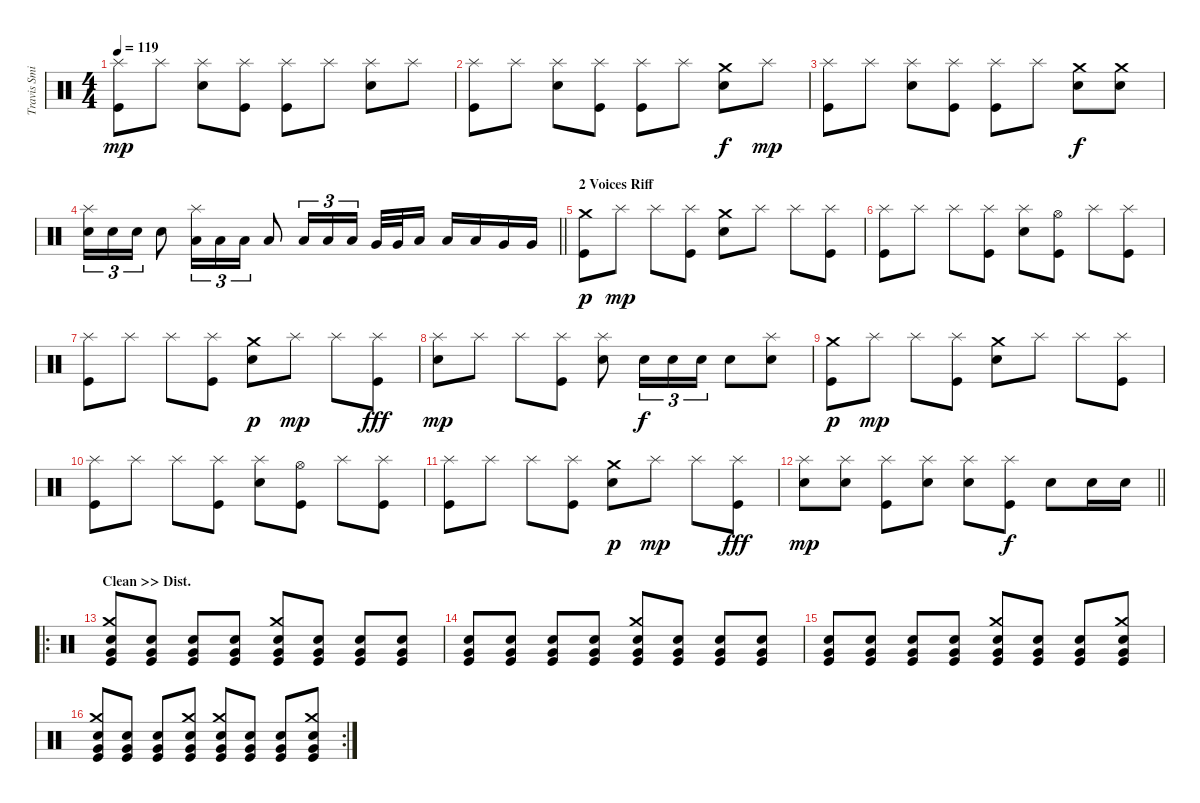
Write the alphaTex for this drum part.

\track ("Travis Smith (Drums)" "Travis Smi") {instrument percussion}
\staff {score}
\articulation defaults
\ts (4 4)
\tempo 119
\clef neutral
\ks c
("Splash (hit)" "Kick (hit)").8{dy mp} "Splash (hit)".8 ("Splash (hit)" "Electric Snare (hit)").8 ("Splash (hit)" "Kick (hit)").8 ("Splash (hit)" "Kick (hit)").8 "Splash (hit)".8 ("Splash (hit)" "Electric Snare (hit)").8 "Splash (hit)".8 |
("Splash (hit)" "Kick (hit)").8 "Splash (hit)".8 ("Splash (hit)" "Electric Snare (hit)").8 ("Splash (hit)" "Kick (hit)").8 ("Splash (hit)" "Kick (hit)").8 "Splash (hit)".8 ("Crash medium (hit)" "Electric Snare (hit)").8{dy f} "Splash (hit)".8{dy mp} |
("Splash (hit)" "Kick (hit)").8 "Splash (hit)".8 ("Splash (hit)" "Electric Snare (hit)").8 ("Splash (hit)" "Kick (hit)").8 ("Splash (hit)" "Kick (hit)").8 "Splash (hit)".8 ("Crash medium (hit)" "Electric Snare (hit)").8{dy f} ("Crash medium (hit)" "Electric Snare (hit)").8 |
\barLineRight lightlight
("Splash (hit)" "Electric Snare (hit)").16{tu (3 2)} "Electric Snare (hit)".16{tu (3 2)} "Electric Snare (hit)".16{tu (3 2)} "Electric Snare (hit)".8 ("Splash (hit)" "Low Tom (hit)").16{tu (3 2)} "Low Tom (hit)".16{tu (3 2)} "Low Tom (hit)".16{tu (3 2)} "Low Tom (hit)".8 "Low Tom (hit)".16{tu (3 2)} "Low Tom (hit)".16{tu (3 2)} "Low Tom (hit)".16{tu (3 2) beam splitsecondary} "Very Low Tom (hit)".32 "Very Low Tom (hit)".32 "Low Floor Tom (hit)".16 "Low Floor Tom (hit)".16 "Low Floor Tom (hit)".16 "Very Low Tom (hit)".16 "Very Low Tom (hit)".16 |
\section ("" "2 Voices Riff")
("Crash medium (hit)" "Kick (hit)").8{dy p} "Splash (hit)".8{dy mp} "Splash (hit)".8 ("Splash (hit)" "Kick (hit)").8 ("Crash medium (hit)" "Electric Snare (hit)").8 "Splash (hit)".8 "Splash (hit)".8 ("Splash (hit)" "Kick (hit)").8 |
("Splash (hit)" "Kick (hit)").8 "Splash (hit)".8 "Splash (hit)".8 ("Splash (hit)" "Kick (hit)").8 ("Splash (hit)" "Electric Snare (hit)").8 ("Hi-Hat (open)" "Kick (hit)").8 "Splash (hit)".8 ("Splash (hit)" "Kick (hit)").8 |
("Splash (hit)" "Kick (hit)").8 "Splash (hit)".8 "Splash (hit)".8 ("Splash (hit)" "Kick (hit)").8 ("Crash medium (hit)" "Electric Snare (hit)").8{dy p} "Splash (hit)".8{dy mp} "Splash (hit)".8 ("Splash (hit)" "Kick (hit)").8{dy fff} |
("Splash (hit)" "Electric Snare (hit)").8{dy mp} "Splash (hit)".8 "Splash (hit)".8 ("Splash (hit)" "Kick (hit)").8 ("Splash (hit)" "Electric Snare (hit)").8 "Electric Snare (hit)".16{tu (3 2) dy f} "Electric Snare (hit)".16{tu (3 2)} "Electric Snare (hit)".16{tu (3 2)} "Electric Snare (hit)".8 ("Splash (hit)" "Electric Snare (hit)").8 |
("Crash medium (hit)" "Kick (hit)").8{dy p} "Splash (hit)".8{dy mp} "Splash (hit)".8 ("Splash (hit)" "Kick (hit)").8 ("Crash medium (hit)" "Electric Snare (hit)").8 "Splash (hit)".8 "Splash (hit)".8 ("Splash (hit)" "Kick (hit)").8 |
("Splash (hit)" "Kick (hit)").8 "Splash (hit)".8 "Splash (hit)".8 ("Splash (hit)" "Kick (hit)").8 ("Splash (hit)" "Electric Snare (hit)").8 ("Hi-Hat (open)" "Kick (hit)").8 "Splash (hit)".8 ("Splash (hit)" "Kick (hit)").8 |
("Splash (hit)" "Kick (hit)").8 "Splash (hit)".8 "Splash (hit)".8 ("Splash (hit)" "Kick (hit)").8 ("Crash medium (hit)" "Electric Snare (hit)").8{dy p} "Splash (hit)".8{dy mp} "Splash (hit)".8 ("Splash (hit)" "Kick (hit)").8{dy fff} |
\barLineRight lightlight
("Splash (hit)" "Electric Snare (hit)").8{dy mp} ("Splash (hit)" "Electric Snare (hit)").8 ("Splash (hit)" "Kick (hit)").8 ("Splash (hit)" "Electric Snare (hit)").8 ("Splash (hit)" "Electric Snare (hit)").8 ("Splash (hit)" "Kick (hit)").8{dy f} "Electric Snare (hit)".8 "Electric Snare (hit)".16 "Electric Snare (hit)".16 |
\ro
\section ("" "Clean >> Dist.")
("Crash medium (hit)" "Very Low Tom (hit)" "Kick (hit)" "Electric Snare (hit)").8 ("Very Low Tom (hit)" "Kick (hit)" "Electric Snare (hit)").8 ("Very Low Tom (hit)" "Kick (hit)" "Electric Snare (hit)").8 ("Very Low Tom (hit)" "Kick (hit)" "Electric Snare (hit)").8 ("Crash medium (hit)" "Very Low Tom (hit)" "Kick (hit)" "Electric Snare (hit)").8 ("Very Low Tom (hit)" "Kick (hit)" "Electric Snare (hit)").8 ("Very Low Tom (hit)" "Kick (hit)" "Electric Snare (hit)").8 ("Very Low Tom (hit)" "Kick (hit)" "Electric Snare (hit)").8 |
("Very Low Tom (hit)" "Kick (hit)" "Electric Snare (hit)").8 ("Very Low Tom (hit)" "Kick (hit)" "Electric Snare (hit)").8 ("Very Low Tom (hit)" "Kick (hit)" "Electric Snare (hit)").8 ("Very Low Tom (hit)" "Kick (hit)" "Electric Snare (hit)").8 ("Crash medium (hit)" "Very Low Tom (hit)" "Kick (hit)" "Electric Snare (hit)").8 ("Very Low Tom (hit)" "Kick (hit)" "Electric Snare (hit)").8 ("Very Low Tom (hit)" "Kick (hit)" "Electric Snare (hit)").8 ("Very Low Tom (hit)" "Kick (hit)" "Electric Snare (hit)").8 |
("Very Low Tom (hit)" "Kick (hit)" "Electric Snare (hit)").8 ("Very Low Tom (hit)" "Kick (hit)" "Electric Snare (hit)").8 ("Very Low Tom (hit)" "Kick (hit)" "Electric Snare (hit)").8 ("Very Low Tom (hit)" "Kick (hit)" "Electric Snare (hit)").8 ("Crash medium (hit)" "Very Low Tom (hit)" "Kick (hit)" "Electric Snare (hit)").8 ("Very Low Tom (hit)" "Kick (hit)" "Electric Snare (hit)").8 ("Very Low Tom (hit)" "Kick (hit)" "Electric Snare (hit)").8 ("Crash medium (hit)" "Very Low Tom (hit)" "Kick (hit)" "Electric Snare (hit)").8 |
\rc 2
("Crash medium (hit)" "Very Low Tom (hit)" "Kick (hit)" "Electric Snare (hit)").8 ("Very Low Tom (hit)" "Kick (hit)" "Electric Snare (hit)").8 ("Very Low Tom (hit)" "Kick (hit)" "Electric Snare (hit)").8 ("Crash medium (hit)" "Very Low Tom (hit)" "Kick (hit)" "Electric Snare (hit)").8 ("Crash medium (hit)" "Very Low Tom (hit)" "Kick (hit)" "Electric Snare (hit)").8 ("Very Low Tom (hit)" "Kick (hit)" "Electric Snare (hit)").8 ("Very Low Tom (hit)" "Kick (hit)" "Electric Snare (hit)").8 ("Crash medium (hit)" "Very Low Tom (hit)" "Kick (hit)" "Electric Snare (hit)").8
